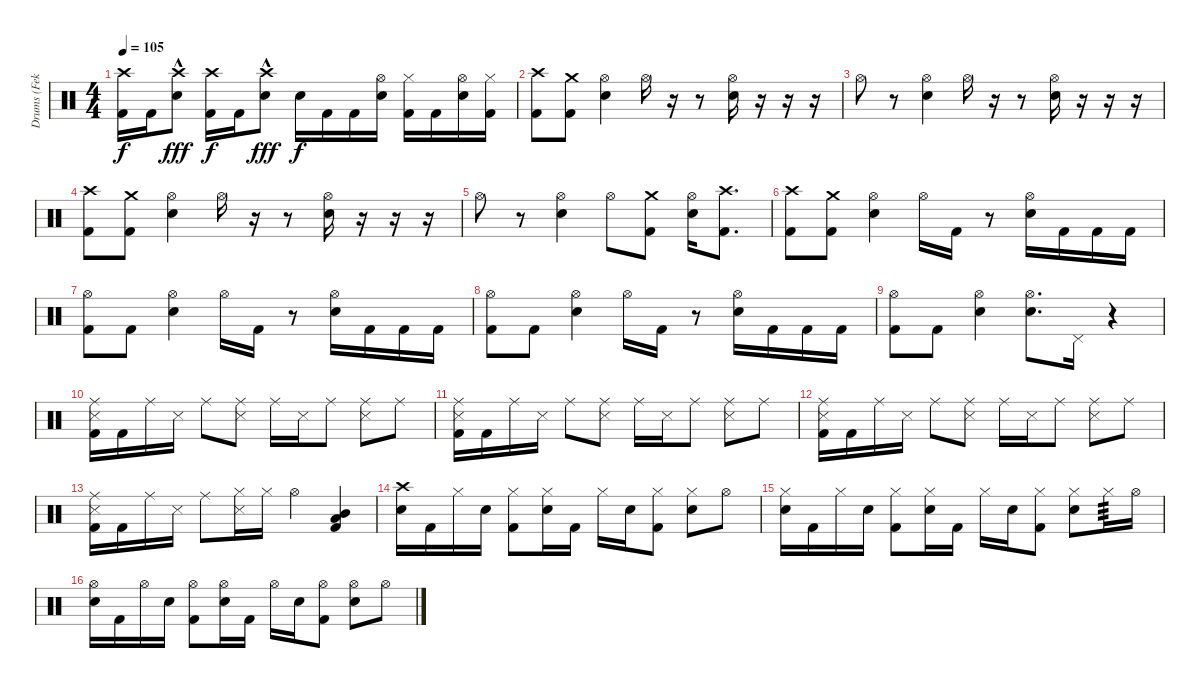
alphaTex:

\track ("Drums (Fekete 'Feka' Balázs)" "Drums (Fek") {instrument percussion}
\staff {score}
\articulation defaults
\ts (4 4)
\tempo 105
\clef neutral
\ks c
("Crash high (hit)" "Kick (hit) 2").16{dy f} "Kick (hit) 2".16 ("Crash high (hit)" "Snare (hit) 2"{hac}).8{dy fff} ("Crash high (hit)" "Kick (hit) 2").16{dy f} "Kick (hit) 2".16 ("Crash high (hit)" "Snare (hit) 2"{hac}).8{dy fff} "Snare (hit) 2".16{dy f} "Kick (hit) 2".16 "Kick (hit) 2".16 ("Hi-Hat (open)" "Snare (hit) 2").16 ("Hi-Hat (closed)" "Kick (hit) 2").16 "Kick (hit) 2".16 ("Hi-Hat (open)" "Snare (hit) 2").16 ("Hi-Hat (closed)" "Kick (hit) 2").16 |
("Crash high (hit)" "Kick (hit) 2").8 ("Crash medium (hit)" "Kick (hit) 2").8 ("Hi-Hat (open)" "Snare (hit) 2").4 "Hi-Hat (open)".16 r.16 r.8 ("Hi-Hat (open)" "Snare (hit) 2").16 r.16 r.16 r.16 |
"Hi-Hat (open)".8 r.8 ("Hi-Hat (open)" "Snare (hit) 2").4 "Hi-Hat (open)".16 r.16 r.8 ("Hi-Hat (open)" "Snare (hit) 2").16 r.16 r.16 r.16 |
("Crash high (hit)" "Kick (hit) 2").8 ("Crash medium (hit)" "Kick (hit) 2").8 ("Hi-Hat (open)" "Snare (hit) 2").4 "Hi-Hat (open)".16 r.16 r.8 ("Hi-Hat (open)" "Snare (hit) 2").16 r.16 r.16 r.16 |
"Hi-Hat (open)".8 r.8 ("Hi-Hat (open)" "Snare (hit) 2").4 "Hi-Hat (open)".8 ("Crash medium (hit)" "Kick (hit) 2").8 ("Hi-Hat (open)" "Snare (hit) 2").16 ("Crash high (hit)" "Kick (hit) 2").8{d} |
("Crash high (hit)" "Kick (hit) 2").8 ("Crash medium (hit)" "Kick (hit) 2").8 ("Hi-Hat (open)" "Snare (hit) 2").4 "Hi-Hat (open)".16 "Kick (hit) 2".16 r.8 ("Hi-Hat (open)" "Snare (hit) 2").16 "Kick (hit) 2".16 "Kick (hit) 2".16 "Kick (hit) 2".16 |
("Hi-Hat (open)" "Kick (hit) 2").8 "Kick (hit) 2".8 ("Hi-Hat (open)" "Snare (hit) 2").4 "Hi-Hat (open)".16 "Kick (hit) 2".16 r.8 ("Hi-Hat (open)" "Snare (hit) 2").16 "Kick (hit) 2".16 "Kick (hit) 2".16 "Kick (hit) 2".16 |
("Hi-Hat (open)" "Kick (hit) 2").8 "Kick (hit) 2".8 ("Hi-Hat (open)" "Snare (hit) 2").4 "Hi-Hat (open)".16 "Kick (hit) 2".16 r.8 ("Hi-Hat (open)" "Snare (hit) 2").16 "Kick (hit) 2".16 "Kick (hit) 2".16 "Kick (hit) 2".16 |
("Hi-Hat (open)" "Kick (hit) 2").8 "Kick (hit) 2".8 ("Hi-Hat (open)" "Snare (hit) 2").4 ("Hi-Hat (open)" "Snare (hit) 2").8{d} "Pedal Hi-Hat (hit)".16 r.4 |
("Ride (middle)" "Snare (side stick) 3" "Kick (hit) 2").16 "Kick (hit) 2".16 "Ride (middle)".16 "Snare (side stick) 3".16 "Ride (middle)".8 ("Ride (middle)" "Snare (side stick) 3").8 "Ride (middle)".16 "Snare (side stick) 3".16 "Ride (middle)".8 ("Ride (middle)" "Snare (side stick) 3").8 "Ride (middle)".8 |
("Ride (middle)" "Snare (side stick) 3" "Kick (hit) 2").16 "Kick (hit) 2".16 "Ride (middle)".16 "Snare (side stick) 3".16 "Ride (middle)".8 ("Ride (middle)" "Snare (side stick) 3").8 "Ride (middle)".16 "Snare (side stick) 3".16 "Ride (middle)".8 ("Ride (middle)" "Snare (side stick) 3").8 "Ride (middle)".8 |
("Ride (middle)" "Snare (side stick) 3" "Kick (hit) 2").16 "Kick (hit) 2".16 "Ride (middle)".16 "Snare (side stick) 3".16 "Ride (middle)".8 ("Ride (middle)" "Snare (side stick) 3").8 "Ride (middle)".16 "Snare (side stick) 3".16 "Ride (middle)".8 ("Ride (middle)" "Snare (side stick) 3").8 "Ride (middle)".8 |
("Ride (middle)" "Snare (side stick) 3" "Kick (hit) 2").16 "Kick (hit) 2".16 "Ride (middle)".16 "Snare (side stick) 3".16 "Ride (middle)".8 ("Hi-Hat (closed)" "Snare (side stick) 3").16 "Hi-Hat (closed)".16 "Hi-Hat (open)".4 ("Low Tom (hit)" "Mid Tom (hit)" "Kick (hit) 2").4 |
("Crash high (hit)" "Snare (hit) 2").16 "Kick (hit) 2".16 "Hi-Hat (closed)".16 "Snare (hit) 2".16 ("Hi-Hat (closed)" "Kick (hit) 2").8 ("Hi-Hat (closed)" "Snare (hit) 2").16 "Kick (hit) 2".16 "Hi-Hat (closed)".16 "Snare (hit) 2".16 ("Hi-Hat (closed)" "Kick (hit) 2").8 ("Hi-Hat (closed)" "Snare (hit) 2").8 "Hi-Hat (open)".8 |
("Hi-Hat (closed)" "Snare (hit) 2").16 "Kick (hit) 2".16 "Hi-Hat (closed)".16 "Snare (hit) 2".16 ("Hi-Hat (closed)" "Kick (hit) 2").8 ("Hi-Hat (closed)" "Snare (hit) 2").16 "Kick (hit) 2".16 "Hi-Hat (closed)".16 "Snare (hit) 2".16 ("Hi-Hat (closed)" "Kick (hit) 2").8 ("Hi-Hat (closed)" "Snare (hit) 2").8 "Hi-Hat (closed)".16{tp 3} "Hi-Hat (open)".16 |
("Hi-Hat (open)" "Snare (hit) 2").16 "Kick (hit) 2".16 "Hi-Hat (open)".16 "Snare (hit) 2".16 ("Hi-Hat (open)" "Kick (hit) 2").8 ("Hi-Hat (open)" "Snare (hit) 2").16 "Kick (hit) 2".16 "Hi-Hat (open)".16 "Snare (hit) 2".16 ("Hi-Hat (open)" "Kick (hit) 2").8 ("Hi-Hat (open)" "Snare (hit) 2").8 "Hi-Hat (open)".8
